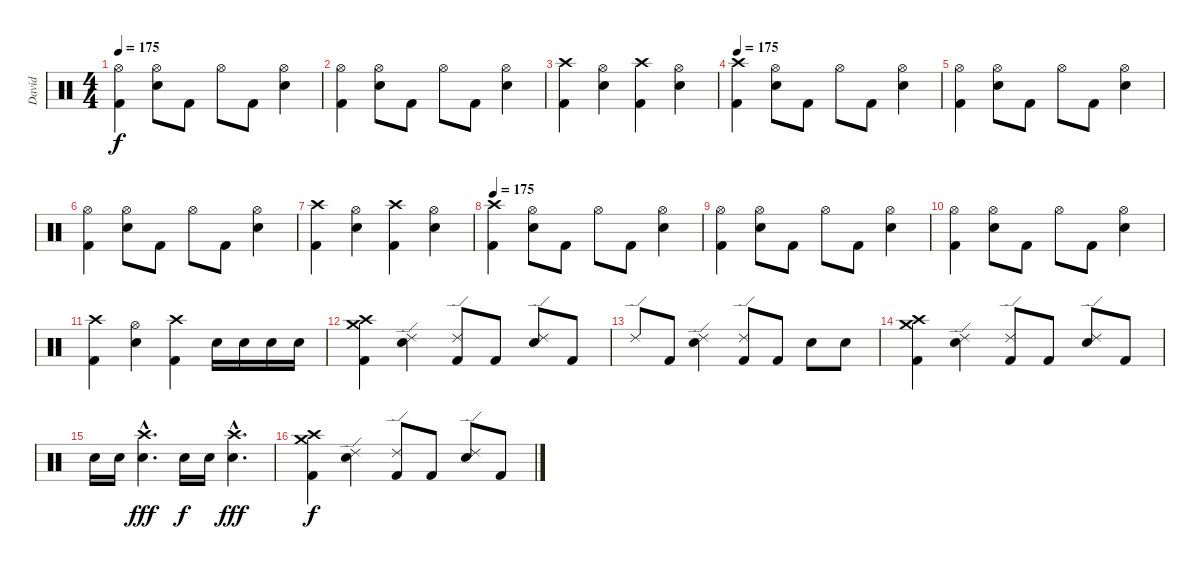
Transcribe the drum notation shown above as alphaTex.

\track ("David" "David") {instrument percussion}
\staff {score}
\articulation defaults
\ts (4 4)
\tempo 175
\clef neutral
\ks c
("Hi-Hat (open)" "Kick (hit) 2").4{dy f} ("Hi-Hat (open)" "Snare (hit) 2").8 "Kick (hit) 2".8 "Hi-Hat (open)".8 "Kick (hit) 2".8 ("Hi-Hat (open)" "Snare (hit) 2").4 |
("Hi-Hat (open)" "Kick (hit) 2").4 ("Hi-Hat (open)" "Snare (hit) 2").8 "Kick (hit) 2".8 "Hi-Hat (open)".8 "Kick (hit) 2".8 ("Hi-Hat (open)" "Snare (hit) 2").4 |
("Crash high (hit)" "Kick (hit) 2").4 ("Hi-Hat (open)" "Snare (hit) 2").4 ("Crash high (hit)" "Kick (hit) 2").4 ("Hi-Hat (open)" "Snare (hit) 2").4 |
\tempo 175
("Crash high (hit)" "Kick (hit) 2").4 ("Hi-Hat (open)" "Snare (hit) 2").8 "Kick (hit) 2".8 "Hi-Hat (open)".8 "Kick (hit) 2".8 ("Hi-Hat (open)" "Snare (hit) 2").4 |
("Hi-Hat (open)" "Kick (hit) 2").4 ("Hi-Hat (open)" "Snare (hit) 2").8 "Kick (hit) 2".8 "Hi-Hat (open)".8 "Kick (hit) 2".8 ("Hi-Hat (open)" "Snare (hit) 2").4 |
("Hi-Hat (open)" "Kick (hit) 2").4 ("Hi-Hat (open)" "Snare (hit) 2").8 "Kick (hit) 2".8 "Hi-Hat (open)".8 "Kick (hit) 2".8 ("Hi-Hat (open)" "Snare (hit) 2").4 |
("Crash high (hit)" "Kick (hit) 2").4 ("Hi-Hat (open)" "Snare (hit) 2").4 ("Crash high (hit)" "Kick (hit) 2").4 ("Hi-Hat (open)" "Snare (hit) 2").4 |
\tempo 175
("Crash high (hit)" "Kick (hit) 2").4 ("Hi-Hat (open)" "Snare (hit) 2").8 "Kick (hit) 2".8 "Hi-Hat (open)".8 "Kick (hit) 2".8 ("Hi-Hat (open)" "Snare (hit) 2").4 |
("Hi-Hat (open)" "Kick (hit) 2").4 ("Hi-Hat (open)" "Snare (hit) 2").8 "Kick (hit) 2".8 "Hi-Hat (open)".8 "Kick (hit) 2".8 ("Hi-Hat (open)" "Snare (hit) 2").4 |
("Hi-Hat (open)" "Kick (hit) 2").4 ("Hi-Hat (open)" "Snare (hit) 2").8 "Kick (hit) 2".8 "Hi-Hat (open)".8 "Kick (hit) 2".8 ("Hi-Hat (open)" "Snare (hit) 2").4 |
("Crash high (hit)" "Kick (hit) 2").4 ("Hi-Hat (open)" "Snare (hit) 2").4 ("Crash high (hit)" "Kick (hit) 2").4 "Snare (hit) 2".16 "Snare (hit) 2".16 "Snare (hit) 2".16 "Snare (hit) 2".16 |
("Crash high (hit)" "Crash medium (hit)" "Kick (hit) 2").4 ("Ride (edge) 2" "Snare (hit) 2").4 ("Ride (edge) 2" "Kick (hit) 2").8 "Kick (hit) 2".8 ("Ride (edge) 2" "Snare (hit) 2").8 "Kick (hit) 2".8 |
"Ride (edge) 2".8 "Kick (hit) 2".8 ("Ride (edge) 2" "Snare (hit) 2").4 ("Ride (edge) 2" "Kick (hit) 2").8 "Kick (hit) 2".8 "Snare (hit) 2".8 "Snare (hit) 2".8 |
("Crash high (hit)" "Crash medium (hit)" "Kick (hit) 2").4 ("Ride (edge) 2" "Snare (hit) 2").4 ("Ride (edge) 2" "Kick (hit) 2").8 "Kick (hit) 2".8 ("Ride (edge) 2" "Snare (hit) 2").8 "Kick (hit) 2".8 |
"Snare (hit) 2".16 "Snare (hit) 2".16 ("Crash high (hit)" "Snare (hit) 2"{hac}).4{d dy fff} "Snare (hit) 2".16{dy f} "Snare (hit) 2".16 ("Crash high (hit)" "Snare (hit) 2"{hac}).4{d dy fff} |
("Crash high (hit)" "Crash medium (hit)" "Kick (hit) 2").4{dy f} ("Ride (edge) 2" "Snare (hit) 2").4 ("Ride (edge) 2" "Kick (hit) 2").8 "Kick (hit) 2".8 ("Ride (edge) 2" "Snare (hit) 2").8 "Kick (hit) 2".8
